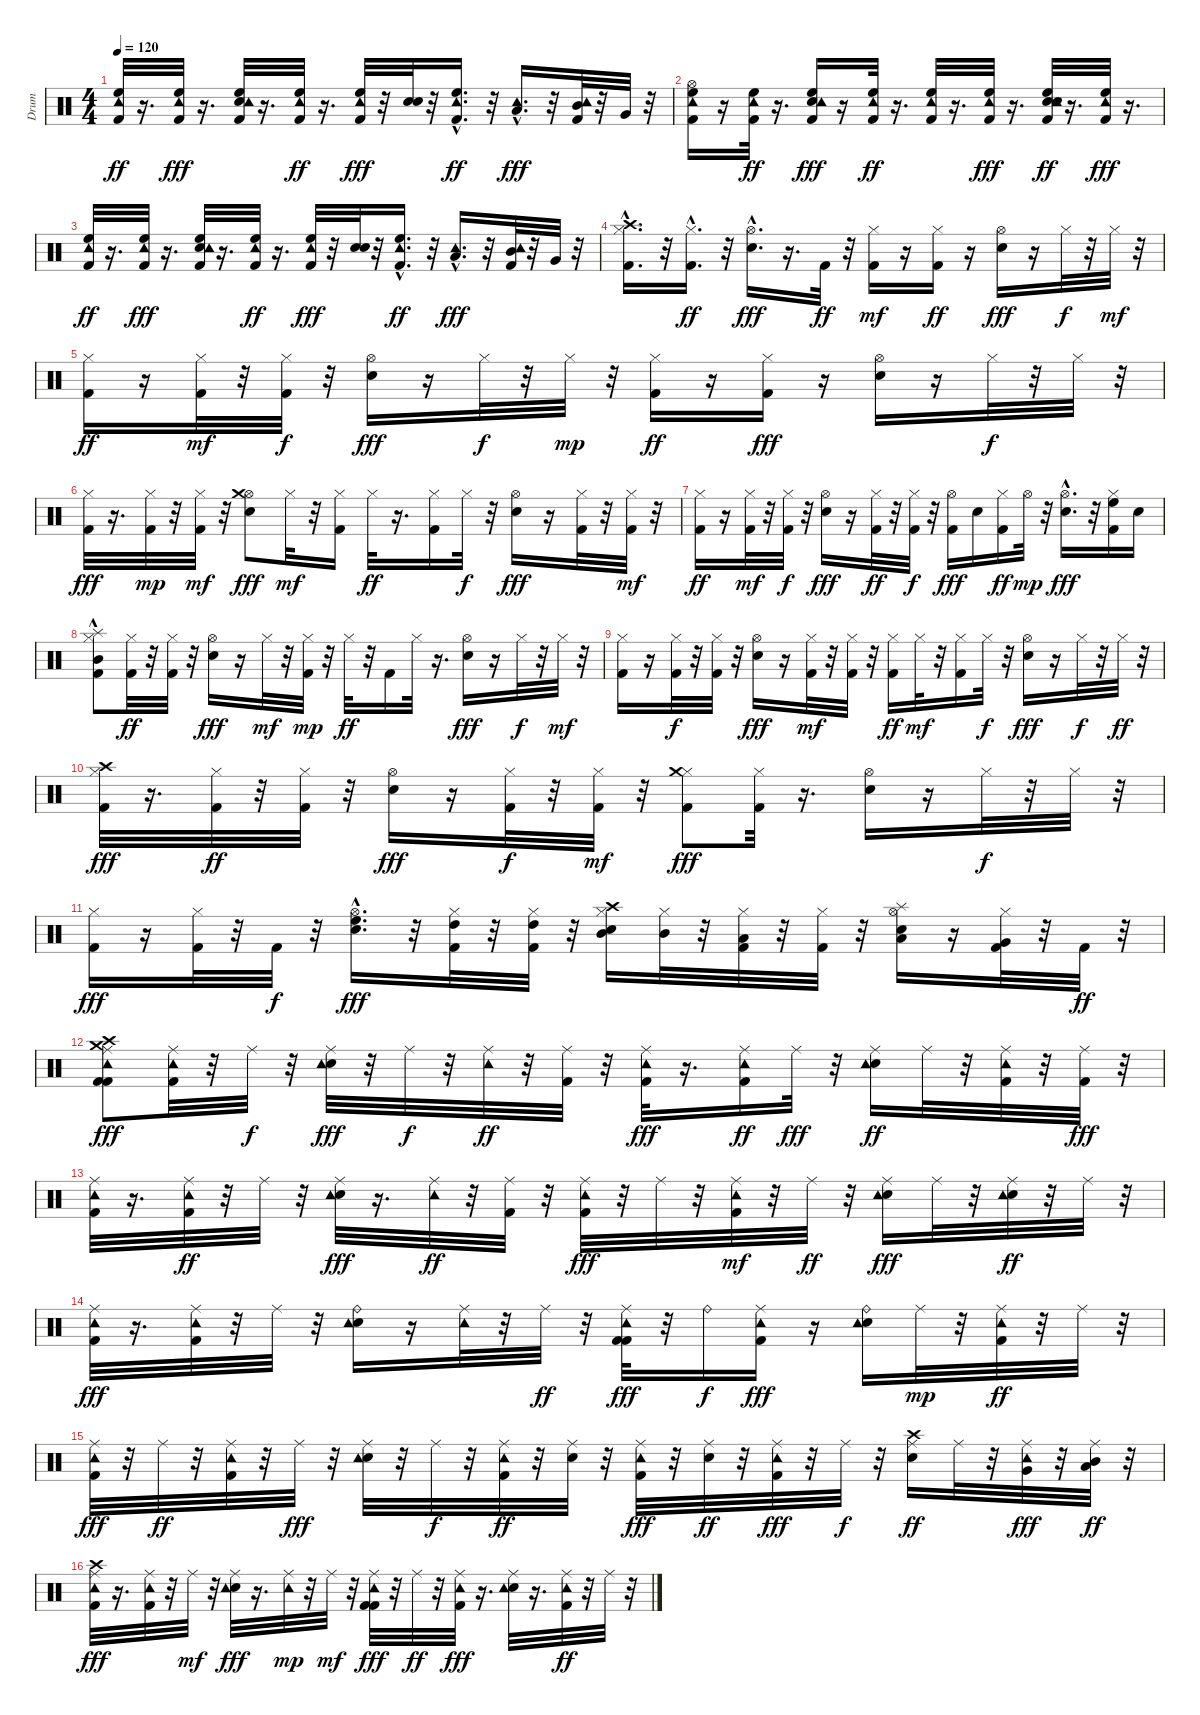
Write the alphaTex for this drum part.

\track ("Drum" "Drum") {instrument percussion}
\staff {score}
\articulation defaults
\ts (4 4)
\tempo 120
\clef neutral
\ks c
("Kick (hit) 2" "High Floor Tom (hit)" "Tambourine (hit)").32{dy ff} r.16{d} ("Kick (hit) 2" "High Floor Tom (hit)" "Tambourine (hit)").32{dy fff} r.16{d} ("Kick (hit) 2" "Electric Snare (hit)" "High Floor Tom (hit)" "Tambourine (hit)").32 r.16{d} ("Kick (hit) 2" "High Floor Tom (hit)" "Tambourine (hit)").32{dy ff} r.16{d} ("Kick (hit) 2" "High Floor Tom (hit)" "Tambourine (hit)").32{dy fff} r.32 ("Electric Snare (hit)" "Electric Snare (hit)").32 r.32 ("Kick (hit) 2" "High Floor Tom (hit)"{hac} "Tambourine (hit)").16{d dy ff} r.32 ("Low Tom (hit)"{hac} "Tambourine (hit)").16{d dy fff} r.32 ("Kick (hit) 2" "Mid Tom (hit)" "Tambourine (hit)").32 r.32 "Very Low Tom (hit)".32 r.32 |
("Kick (hit) 2" "Hi-Hat (open)" "High Floor Tom (hit)" "Tambourine (hit)").16 r.16 ("Kick (hit) 2" "High Floor Tom (hit)" "Tambourine (hit)").32{dy ff} r.16{d} ("Kick (hit) 2" "Electric Snare (hit)" "High Floor Tom (hit)" "Tambourine (hit)").16{dy fff} r.16 ("Kick (hit) 2" "High Floor Tom (hit)" "Tambourine (hit)").32{dy ff} r.16{d} ("Kick (hit) 2" "High Floor Tom (hit)" "Tambourine (hit)").32 r.16{d} ("Kick (hit) 2" "High Floor Tom (hit)" "Tambourine (hit)").32{dy fff} r.16{d} ("Kick (hit) 2" "Snare (hit) 2" "Electric Snare (hit)" "High Floor Tom (hit)" "Tambourine (hit)").32{dy ff} r.16{d} ("Kick (hit) 2" "High Floor Tom (hit)" "Tambourine (hit)").32{dy fff} r.16{d} |
("Kick (hit) 2" "High Floor Tom (hit)" "Tambourine (hit)").32{dy ff} r.16{d} ("Kick (hit) 2" "High Floor Tom (hit)" "Tambourine (hit)").32{dy fff} r.16{d} ("Kick (hit) 2" "Electric Snare (hit)" "High Floor Tom (hit)" "Tambourine (hit)").32 r.16{d} ("Kick (hit) 2" "High Floor Tom (hit)" "Tambourine (hit)").32{dy ff} r.16{d} ("Kick (hit) 2" "High Floor Tom (hit)" "Tambourine (hit)").32{dy fff} r.32 ("Electric Snare (hit)" "Electric Snare (hit)").32 r.32 ("Kick (hit) 2" "High Floor Tom (hit)"{hac} "Tambourine (hit)").16{d dy ff} r.32 ("Low Tom (hit)"{hac} "Tambourine (hit)").16{d dy fff} r.32 ("Kick (hit) 2" "Mid Tom (hit)" "Tambourine (hit)").32 r.32 "Very Low Tom (hit)".32 r.32 |
("Kick (hit) 2"{hac} "Hi-Hat (closed)" "Crash high (hit)"{hac}).16{d} r.32 ("Kick (hit) 2"{hac} "Hi-Hat (closed)").16{d dy ff} r.32 ("Electric Snare (hit)" "Hi-Hat (open)"{hac}).16{d dy fff} r.16{d} "Kick (hit) 2".32{dy ff} r.32 ("Kick (hit) 2" "Hi-Hat (closed)").16{dy mf} r.16 ("Kick (hit) 2" "Hi-Hat (closed)").16{dy ff} r.16 ("Electric Snare (hit)" "Hi-Hat (open)").16{dy fff} r.16 "Hi-Hat (closed)".32{dy f} r.32 "Hi-Hat (closed)".32{dy mf} r.32 |
("Kick (hit) 2" "Hi-Hat (closed)").16{dy ff} r.16 ("Kick (hit) 2" "Hi-Hat (closed)").32{dy mf} r.32 ("Kick (hit) 2" "Hi-Hat (closed)").32{dy f} r.32 ("Electric Snare (hit)" "Hi-Hat (open)").16{dy fff} r.16 "Hi-Hat (closed)".32{dy f} r.32 "Hi-Hat (closed)".32{dy mp} r.32 ("Kick (hit) 2" "Hi-Hat (closed)").16{dy ff} r.16 ("Kick (hit) 2" "Hi-Hat (closed)").16{dy fff} r.16 ("Electric Snare (hit)" "Hi-Hat (open)").16 r.16 "Hi-Hat (closed)".32{dy f} r.32 "Hi-Hat (closed)".32 r.32 |
("Kick (hit) 2" "Hi-Hat (closed)").32{dy fff} r.16{d} ("Kick (hit) 2" "Hi-Hat (closed)").32{dy mp} r.32 ("Kick (hit) 2" "Hi-Hat (closed)").32{dy mf} r.32 ("Electric Snare (hit)" "Hi-Hat (open)" "Crash medium (hit)").8{dy fff} "Hi-Hat (closed)".32{dy mf} r.32 ("Kick (hit) 2" "Hi-Hat (closed)").16 "Hi-Hat (closed)".32{dy ff} r.16{d} ("Kick (hit) 2" "Hi-Hat (closed)").16 "Hi-Hat (closed)".32{dy f} r.32 ("Electric Snare (hit)" "Hi-Hat (open)").16{dy fff} r.16 ("Kick (hit) 2" "Hi-Hat (closed)").32 r.32 ("Kick (hit) 2" "Hi-Hat (closed)").32{dy mf} r.32 |
("Kick (hit) 2" "Hi-Hat (closed)").16{dy ff} r.16 ("Kick (hit) 2" "Hi-Hat (closed)").32{dy mf} r.32 ("Kick (hit) 2" "Hi-Hat (closed)").32{dy f} r.32 ("Electric Snare (hit)" "Hi-Hat (open)").16{dy fff} r.16 ("Kick (hit) 2" "Hi-Hat (closed)").32{dy ff} r.32 ("Kick (hit) 2" "Hi-Hat (closed)").32{dy f} r.32 ("Kick (hit) 2" "Hi-Hat (open)").16{dy fff} "Electric Snare (hit)".16 ("Kick (hit) 2" "Hi-Hat (closed)").16{dy ff} "Hi-Hat (open)".32{dy mp} r.32 ("Electric Snare (hit)"{hac} "Hi-Hat (open)").16{d dy fff} r.32 ("Kick (hit) 2" "Hi-Hat (closed)" "High Floor Tom (hit)").16 "Electric Snare (hit)".16 |
("Kick (hit) 2" "Hi-Hat (closed)" "Mid Tom (hit)" "Splash (hit)"{hac}).8 ("Kick (hit) 2" "Hi-Hat (closed)").32{dy ff} r.32 ("Kick (hit) 2" "Hi-Hat (closed)").32 r.32 ("Electric Snare (hit)" "Hi-Hat (open)").16{dy fff} r.16 "Hi-Hat (closed)".32{dy mf} r.32 ("Kick (hit) 2" "Hi-Hat (closed)").32{dy mp} r.32 "Hi-Hat (closed)".32{dy ff} r.32 "Kick (hit) 2".16 "Hi-Hat (closed)".32 r.16{d} ("Electric Snare (hit)" "Hi-Hat (open)").16{dy fff} r.16 "Hi-Hat (closed)".32{dy f} r.32 "Hi-Hat (closed)".32{dy mf} r.32 |
("Kick (hit) 2" "Hi-Hat (closed)").16 r.16 ("Kick (hit) 2" "Hi-Hat (closed)").32{dy f} r.32 ("Kick (hit) 2" "Hi-Hat (closed)").32 r.32 ("Electric Snare (hit)" "Hi-Hat (open)").16{dy fff} r.16 ("Kick (hit) 2" "Hi-Hat (closed)").32{dy mf} r.32 ("Kick (hit) 2" "Hi-Hat (closed)").32 r.32 ("Kick (hit) 2" "Hi-Hat (closed)").16{dy ff} "Hi-Hat (closed)".32{dy mf} r.32 ("Kick (hit) 2" "Hi-Hat (closed)").16 "Hi-Hat (closed)".32{dy f} r.32 ("Electric Snare (hit)" "Hi-Hat (open)").16{dy fff} r.16 "Hi-Hat (closed)".32{dy f} r.32 "Hi-Hat (closed)".32{dy ff} r.32 |
("Kick (hit) 2" "Hi-Hat (closed)" "Crash high (hit)").32{dy fff} r.16{d} ("Kick (hit) 2" "Hi-Hat (closed)").32{dy ff} r.32 ("Kick (hit) 2" "Hi-Hat (closed)").32 r.32 ("Electric Snare (hit)" "Hi-Hat (open)").16{dy fff} r.16 ("Kick (hit) 2" "Hi-Hat (closed)").32{dy f} r.32 ("Kick (hit) 2" "Hi-Hat (closed)").32{dy mf} r.32 ("Kick (hit) 2" "Hi-Hat (closed)" "Crash medium (hit)").8{dy fff} ("Kick (hit) 2" "Hi-Hat (closed)").32 r.16{d} ("Electric Snare (hit)" "Hi-Hat (open)").16 r.16 "Hi-Hat (closed)".32{dy f} r.32 "Hi-Hat (closed)".32 r.32 |
("Kick (hit) 2" "Hi-Hat (closed)").16{dy fff} r.16 ("Kick (hit) 2" "Hi-Hat (closed)").32 r.32 "Kick (hit) 2".32{dy f} r.32 ("Electric Snare (hit)" "Hi-Hat (open)" "High Floor Tom (hit)"{hac}).16{d dy fff} r.32 ("Kick (hit) 2" "Hi-Hat (closed)" "High Tom (hit)").32 r.32 ("Kick (hit) 2" "Hi-Hat (closed)" "High Tom (hit)").32 r.32 ("Electric Snare (hit)" "Hi-Hat (closed)" "Mid Tom (hit)" "Crash high (hit)").16 ("Hi-Hat (closed)" "Mid Tom (hit)").32 r.32 ("Kick (hit) 2" "Hi-Hat (closed)" "Low Tom (hit)").32 r.32 ("Kick (hit) 2" "Hi-Hat (closed)").32 r.32 ("Electric Snare (hit)" "Low Tom (hit)" "Hi-Hat (open)" "Splash (hit)").16 r.16 ("Kick (hit) 2" "Hi-Hat (closed)" "Very Low Tom (hit)").32 r.32 "Kick (hit) 2".32{dy ff} r.32 |
("Kick (hit) 2" "Crash high (hit)" "Crash medium (hit)" "Kick (hit) 2" "Ride (middle)" "Tambourine (hit)").8{dy fff} ("Kick (hit) 2" "Ride (middle)" "Tambourine (hit)").32 r.32 "Ride (middle)".32{dy f} r.32 ("Electric Snare (hit)" "Ride (middle)" "Tambourine (hit)").32{dy fff} r.32 "Ride (middle)".32{dy f} r.32 ("Ride (middle)" "Tambourine (hit)").32{dy ff} r.32 ("Kick (hit) 2" "Ride (middle)").32 r.32 ("Kick (hit) 2" "Ride (middle)" "Tambourine (hit)").32{dy fff} r.16{d} ("Kick (hit) 2" "Ride (middle)" "Tambourine (hit)").16{dy ff} "Ride (middle)".32{dy fff} r.32 ("Electric Snare (hit)" "Ride (middle)" "Tambourine (hit)").16{dy ff} "Ride (middle)".32 r.32 ("Kick (hit) 2" "Ride (middle)" "Tambourine (hit)").32 r.32 ("Kick (hit) 2" "Ride (middle)").32{dy fff} r.32 |
("Kick (hit) 2" "Ride (middle)" "Tambourine (hit)").32 r.16{d} ("Kick (hit) 2" "Ride (middle)" "Tambourine (hit)").32{dy ff} r.32 "Ride (middle)".32 r.32 ("Electric Snare (hit)" "Ride (middle)" "Tambourine (hit)").32{dy fff} r.16{d} ("Ride (middle)" "Tambourine (hit)").32{dy ff} r.32 ("Kick (hit) 2" "Ride (middle)").32 r.32 ("Kick (hit) 2" "Ride (middle)" "Tambourine (hit)").32{dy fff} r.32 "Ride (middle)".32 r.32 ("Kick (hit) 2" "Ride (middle)" "Tambourine (hit)").32{dy mf} r.32 "Ride (middle)".32{dy ff} r.32 ("Electric Snare (hit)" "Ride (middle)" "Tambourine (hit)").16{dy fff} "Ride (middle)".32 r.32 ("Electric Snare (hit)" "Ride (middle)" "Tambourine (hit)").32{dy ff} r.32 "Ride (middle)".32 r.32 |
("Kick (hit) 2" "Ride (middle)" "Tambourine (hit)").32{dy fff} r.16{d} ("Kick (hit) 2" "Ride (middle)" "Tambourine (hit)").32 r.32 "Ride (middle)".32 r.32 ("Electric Snare (hit)" "Ride (bell)" "Tambourine (hit)").16 r.16 ("Ride (middle)" "Tambourine (hit)").32 r.32 "Ride (middle)".32{dy ff} r.32 ("Kick (hit) 2" "Kick (hit) 2" "Ride (middle)" "Tambourine (hit)").32{dy fff} r.32 "Ride (bell)".16{dy f} ("Kick (hit) 2" "Ride (middle)" "Tambourine (hit)").16{dy fff} r.16 ("Electric Snare (hit)" "Ride (bell)" "Tambourine (hit)").16 "Ride (middle)".32{dy mp} r.32 ("Kick (hit) 2" "Ride (middle)" "Tambourine (hit)").32{dy ff} r.32 "Ride (middle)".32 r.32 |
("Kick (hit) 2" "Ride (middle)" "Tambourine (hit)").32{dy fff} r.32 "Ride (middle)".32{dy ff} r.32 ("Kick (hit) 2" "Ride (middle)" "Tambourine (hit)").32 r.32 "Ride (middle)".32{dy fff} r.32 ("Electric Snare (hit)" "Ride (middle)" "Tambourine (hit)").32 r.32 "Ride (middle)".32{dy f} r.32 ("Kick (hit) 2" "Ride (middle)" "Tambourine (hit)").32{dy ff} r.32 ("Electric Snare (hit)" "Ride (middle)").32 r.32 ("Kick (hit) 2" "Ride (middle)" "Tambourine (hit)").32{dy fff} r.32 ("Electric Snare (hit)" "Ride (middle)").32{dy ff} r.32 ("Kick (hit) 2" "Ride (middle)" "Tambourine (hit)").32{dy fff} r.32 "Ride (middle)".32{dy f} r.32 ("Electric Snare (hit)" "Crash high (hit)" "Ride (middle)").16{dy ff} "Ride (middle)".32 r.32 ("Very Low Tom (hit)" "Ride (middle)" "Tambourine (hit)").32{dy fff} r.32 ("Low Tom (hit)" "Mid Tom (hit)" "Ride (middle)").32{dy ff} r.32 |
("Kick (hit) 2" "Crash high (hit)" "Ride (middle)" "Tambourine (hit)").32{dy fff} r.16{d} ("Kick (hit) 2" "Ride (middle)" "Tambourine (hit)").32 r.32 "Ride (middle)".32{dy mf} r.32 ("Electric Snare (hit)" "Ride (middle)" "Tambourine (hit)").32{dy fff} r.16{d} ("Ride (middle)" "Tambourine (hit)").32{dy mp} r.32 "Ride (middle)".32{dy mf} r.32 ("Kick (hit) 2" "Kick (hit) 2" "Ride (middle)" "Tambourine (hit)").32{dy fff} r.32 "Ride (middle)".32{dy ff} r.32 ("Kick (hit) 2" "Ride (middle)" "Tambourine (hit)").32{dy fff} r.16{d} ("Electric Snare (hit)" "Ride (middle)" "Tambourine (hit)").32 r.16{d} ("Kick (hit) 2" "Ride (middle)" "Tambourine (hit)").32{dy ff} r.32 "Ride (middle)".32 r.32
